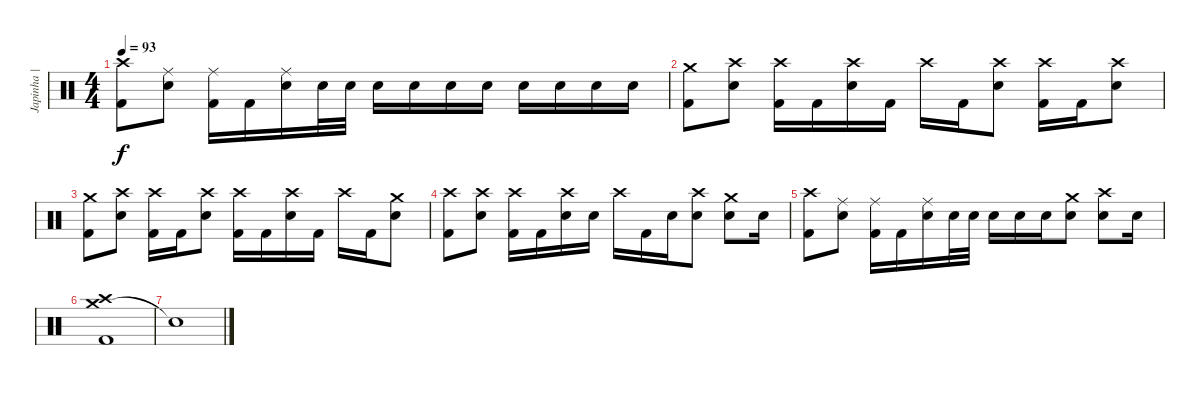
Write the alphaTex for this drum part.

\track ("Japinha | Bateria" "Japinha | ") {instrument percussion}
\staff {score}
\articulation defaults
\ts (4 4)
\tempo 93
\clef neutral
\ks c
("Crash high (hit)" "Kick (hit) 2").8{dy f} ("Ride (middle)" "Electric Snare (hit)").8 ("Ride (middle)" "Kick (hit) 2").16 "Kick (hit) 2".16 ("Ride (middle)" "Electric Snare (hit)").16 "Electric Snare (hit)".32 "Electric Snare (hit)".32 "Electric Snare (hit)".16 "Electric Snare (hit)".16 "Electric Snare (hit)".16 "Electric Snare (hit)".16 "Electric Snare (hit)".16 "Electric Snare (hit)".16 "Electric Snare (hit)".16 "Electric Snare (hit)".16 |
("Crash medium (hit)" "Kick (hit) 2").8 ("Crash high (hit)" "Electric Snare (hit)").8 ("Crash high (hit)" "Kick (hit) 2").16 "Kick (hit) 2".16 ("Crash high (hit)" "Electric Snare (hit)").16 "Kick (hit) 2".16 "Crash high (hit)".16 "Kick (hit) 2".16 ("Crash high (hit)" "Electric Snare (hit)").8 ("Crash high (hit)" "Kick (hit) 2").16 "Kick (hit) 2".16 ("Crash high (hit)" "Electric Snare (hit)").8 |
("Crash medium (hit)" "Kick (hit) 2").8 ("Crash high (hit)" "Electric Snare (hit)").8 ("Crash high (hit)" "Kick (hit) 2").16 "Kick (hit) 2".16 ("Crash high (hit)" "Electric Snare (hit)").8 ("Crash high (hit)" "Kick (hit) 2").16 "Kick (hit) 2".16 ("Crash high (hit)" "Electric Snare (hit)").16 "Kick (hit) 2".16 "Crash high (hit)".16 "Kick (hit) 2".16 ("Crash medium (hit)" "Electric Snare (hit)").8 |
("Crash high (hit)" "Kick (hit) 2").8 ("Crash high (hit)" "Electric Snare (hit)").8 ("Crash high (hit)" "Kick (hit) 2").16 "Kick (hit) 2".16 ("Crash high (hit)" "Electric Snare (hit)").16 "Electric Snare (hit)".16 "Crash high (hit)".16 "Kick (hit) 2".16 "Electric Snare (hit)".16 ("Crash high (hit)" "Electric Snare (hit)").8 ("Crash medium (hit)" "Electric Snare (hit)").8 "Electric Snare (hit)".16 |
("Crash high (hit)" "Kick (hit) 2").8 ("Ride (middle)" "Electric Snare (hit)").8 ("Ride (middle)" "Kick (hit) 2").16 "Kick (hit) 2".16 ("Ride (middle)" "Electric Snare (hit)").16 "Electric Snare (hit)".32 "Electric Snare (hit)".32 "Electric Snare (hit)".16 "Electric Snare (hit)".16 "Electric Snare (hit)".16 ("Crash medium (hit)" "Electric Snare (hit)").8 ("Crash high (hit)" "Electric Snare (hit)").8 "Electric Snare (hit)".16 |
("Crash medium (hit)" "Crash high (hit)" "Kick (hit) 2").1 |
"Snare (hit)"{t}.1
